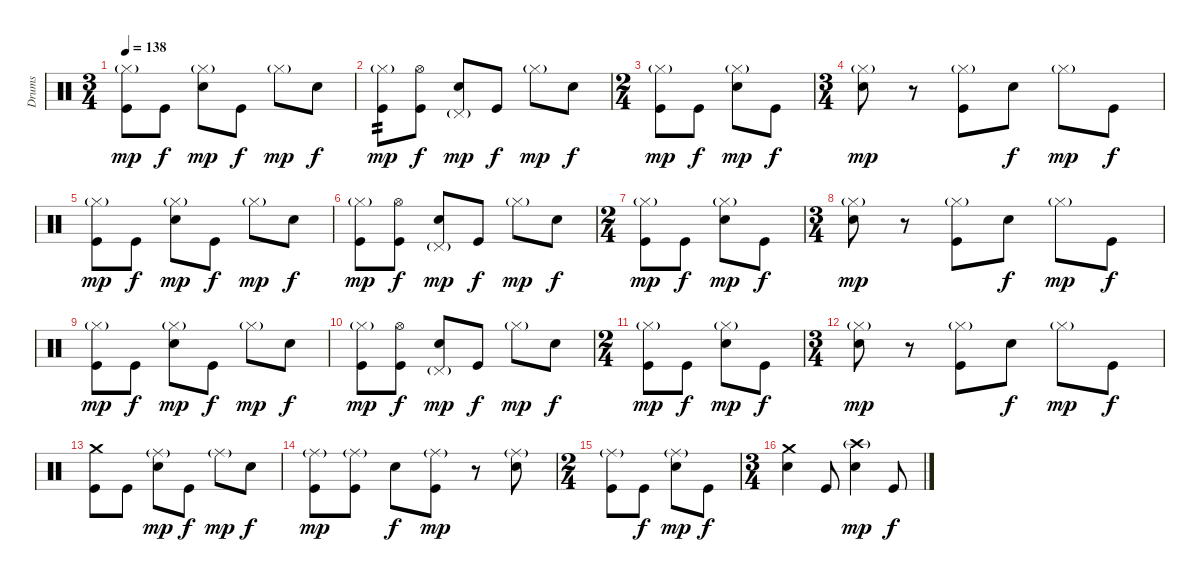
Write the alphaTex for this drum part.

\track ("Drums" "Drums") {instrument percussion}
\staff {score}
\articulation defaults
\ts (3 4)
\tempo 138
\clef neutral
\ks c
("Hi-Hat (closed)"{g} "Kick (hit)").8{dy mp} "Kick (hit)".8{dy f} ("Hi-Hat (closed)"{g} "Electric Snare (hit)").8{dy mp} "Kick (hit)".8{dy f} "Hi-Hat (closed)"{g}.8{dy mp} "Electric Snare (hit)".8{dy f} |
("Hi-Hat (closed)"{g} "Kick (hit)").8{tp 2 dy mp} ("Hi-Hat (open)" "Kick (hit)").8{dy f} ("Pedal Hi-Hat (hit)"{g} "Electric Snare (hit)").8{dy mp} "Kick (hit)".8{dy f} "Hi-Hat (closed)"{g}.8{dy mp} "Electric Snare (hit)".8{dy f} |
\ts (2 4)
("Hi-Hat (closed)"{g} "Kick (hit)").8{dy mp} "Kick (hit)".8{dy f} ("Hi-Hat (closed)"{g} "Electric Snare (hit)").8{dy mp} "Kick (hit)".8{dy f} |
\ts (3 4)
("Hi-Hat (closed)"{g} "Electric Snare (hit)").8{dy mp} r.8 ("Hi-Hat (closed)"{g} "Kick (hit)").8 "Electric Snare (hit)".8{dy f} "Hi-Hat (closed)"{g}.8{dy mp} "Kick (hit)".8{dy f} |
("Hi-Hat (closed)"{g} "Kick (hit)").8{dy mp} "Kick (hit)".8{dy f} ("Hi-Hat (closed)"{g} "Electric Snare (hit)").8{dy mp} "Kick (hit)".8{dy f} "Hi-Hat (closed)"{g}.8{dy mp} "Electric Snare (hit)".8{dy f} |
("Hi-Hat (closed)"{g} "Kick (hit)").8{dy mp} ("Hi-Hat (open)" "Kick (hit)").8{dy f} ("Pedal Hi-Hat (hit)"{g} "Electric Snare (hit)").8{dy mp} "Kick (hit)".8{dy f} "Hi-Hat (closed)"{g}.8{dy mp} "Electric Snare (hit)".8{dy f} |
\ts (2 4)
("Hi-Hat (closed)"{g} "Kick (hit)").8{dy mp} "Kick (hit)".8{dy f} ("Hi-Hat (closed)"{g} "Electric Snare (hit)").8{dy mp} "Kick (hit)".8{dy f} |
\ts (3 4)
("Hi-Hat (closed)"{g} "Electric Snare (hit)").8{dy mp} r.8 ("Hi-Hat (closed)"{g} "Kick (hit)").8 "Electric Snare (hit)".8{dy f} "Hi-Hat (closed)"{g}.8{dy mp} "Kick (hit)".8{dy f} |
("Hi-Hat (closed)"{g} "Kick (hit)").8{dy mp} "Kick (hit)".8{dy f} ("Hi-Hat (closed)"{g} "Electric Snare (hit)").8{dy mp} "Kick (hit)".8{dy f} "Hi-Hat (closed)"{g}.8{dy mp} "Electric Snare (hit)".8{dy f} |
("Hi-Hat (closed)"{g} "Kick (hit)").8{dy mp} ("Hi-Hat (open)" "Kick (hit)").8{dy f} ("Pedal Hi-Hat (hit)"{g} "Electric Snare (hit)").8{dy mp} "Kick (hit)".8{dy f} "Hi-Hat (closed)"{g}.8{dy mp} "Electric Snare (hit)".8{dy f} |
\ts (2 4)
("Hi-Hat (closed)"{g} "Kick (hit)").8{dy mp} "Kick (hit)".8{dy f} ("Hi-Hat (closed)"{g} "Electric Snare (hit)").8{dy mp} "Kick (hit)".8{dy f} |
\ts (3 4)
("Hi-Hat (closed)"{g} "Electric Snare (hit)").8{dy mp} r.8 ("Hi-Hat (closed)"{g} "Kick (hit)").8 "Electric Snare (hit)".8{dy f} "Hi-Hat (closed)"{g}.8{dy mp} "Kick (hit)".8{dy f} |
("Crash medium (hit)" "Kick (hit)").8 "Kick (hit)".8 ("Ride (middle)"{g} "Electric Snare (hit)").8{dy mp} "Kick (hit)".8{dy f} "Ride (middle)"{g}.8{dy mp} "Electric Snare (hit)".8{dy f} |
("Ride (middle)"{g} "Kick (hit)").8{dy mp} ("Ride (middle)"{g} "Kick (hit)").8 "Electric Snare (hit)".8{dy f} ("Ride (middle)"{g} "Kick (hit)").8{dy mp} r.8 ("Ride (middle)"{g} "Electric Snare (hit)").8 |
\ts (2 4)
("Ride (middle)"{g} "Kick (hit)").8 "Kick (hit)".8{dy f} ("Ride (middle)"{g} "Electric Snare (hit)").8{dy mp} "Kick (hit)".8{dy f} |
\ts (3 4)
("Crash medium (hit)" "Electric Snare (hit)").4 "Kick (hit)".8 ("Crash high (hit)"{g} "Electric Snare (hit)").4{dy mp} "Kick (hit)".8{dy f}
